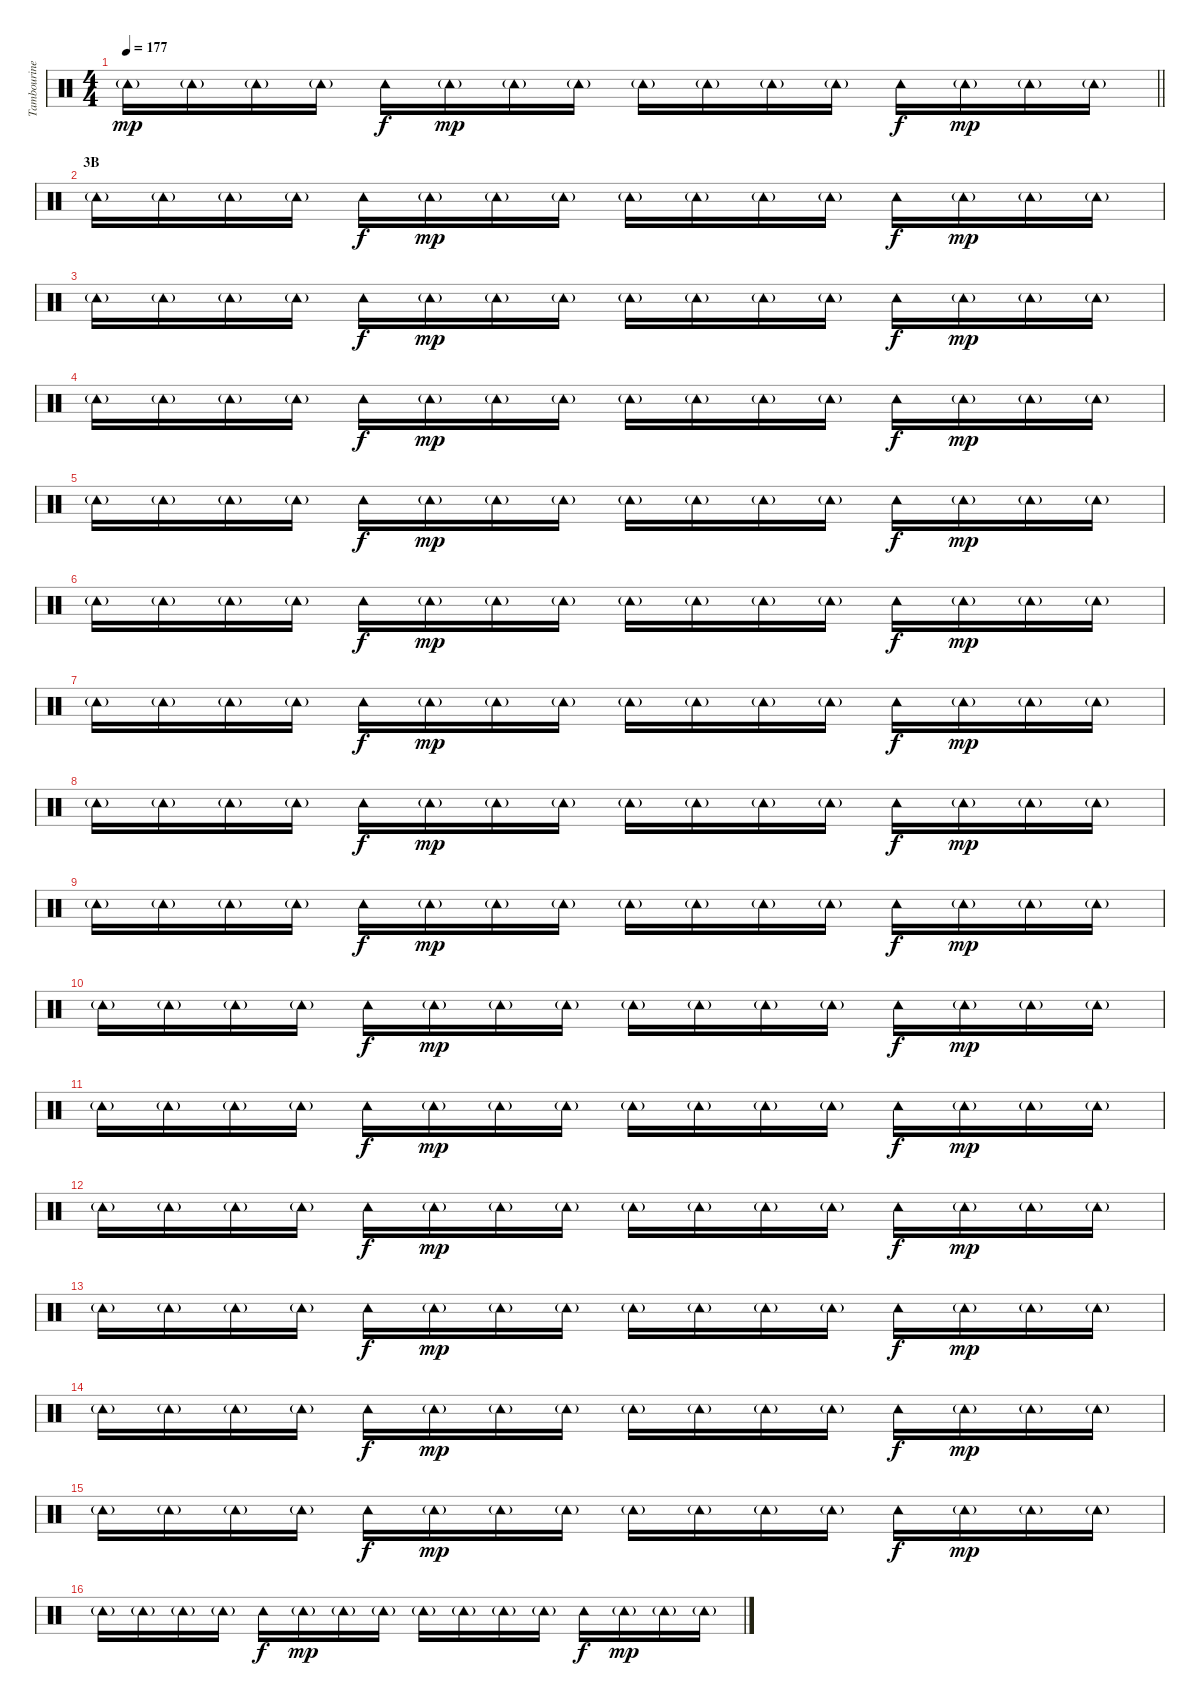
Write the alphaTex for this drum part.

\track ("Tambourine" "Tambourine") {instrument percussion}
\staff {score}
\articulation defaults
\ts (4 4)
\tempo 177
\clef neutral
\barLineRight lightlight
\ks c "Tambourine (hit)"{g}.16{dy mp} "Tambourine (hit)"{g}.16 "Tambourine (hit)"{g}.16 "Tambourine (hit)"{g}.16 "Tambourine (hit)".16{dy f} "Tambourine (hit)"{g}.16{dy mp} "Tambourine (hit)"{g}.16 "Tambourine (hit)"{g}.16 "Tambourine (hit)"{g}.16 "Tambourine (hit)"{g}.16 "Tambourine (hit)"{g}.16 "Tambourine (hit)"{g}.16 "Tambourine (hit)".16{dy f} "Tambourine (hit)"{g}.16{dy mp} "Tambourine (hit)"{g}.16 "Tambourine (hit)"{g}.16
|
\section ("" "3B")
"Tambourine (hit)"{g}.16 "Tambourine (hit)"{g}.16 "Tambourine (hit)"{g}.16 "Tambourine (hit)"{g}.16 "Tambourine (hit)".16{dy f} "Tambourine (hit)"{g}.16{dy mp} "Tambourine (hit)"{g}.16 "Tambourine (hit)"{g}.16 "Tambourine (hit)"{g}.16 "Tambourine (hit)"{g}.16 "Tambourine (hit)"{g}.16 "Tambourine (hit)"{g}.16 "Tambourine (hit)".16{dy f} "Tambourine (hit)"{g}.16{dy mp} "Tambourine (hit)"{g}.16 "Tambourine (hit)"{g}.16 |
"Tambourine (hit)"{g}.16 "Tambourine (hit)"{g}.16 "Tambourine (hit)"{g}.16 "Tambourine (hit)"{g}.16 "Tambourine (hit)".16{dy f} "Tambourine (hit)"{g}.16{dy mp} "Tambourine (hit)"{g}.16 "Tambourine (hit)"{g}.16 "Tambourine (hit)"{g}.16 "Tambourine (hit)"{g}.16 "Tambourine (hit)"{g}.16 "Tambourine (hit)"{g}.16 "Tambourine (hit)".16{dy f} "Tambourine (hit)"{g}.16{dy mp} "Tambourine (hit)"{g}.16 "Tambourine (hit)"{g}.16 |
"Tambourine (hit)"{g}.16 "Tambourine (hit)"{g}.16 "Tambourine (hit)"{g}.16 "Tambourine (hit)"{g}.16 "Tambourine (hit)".16{dy f} "Tambourine (hit)"{g}.16{dy mp} "Tambourine (hit)"{g}.16 "Tambourine (hit)"{g}.16 "Tambourine (hit)"{g}.16 "Tambourine (hit)"{g}.16 "Tambourine (hit)"{g}.16 "Tambourine (hit)"{g}.16 "Tambourine (hit)".16{dy f} "Tambourine (hit)"{g}.16{dy mp} "Tambourine (hit)"{g}.16 "Tambourine (hit)"{g}.16 |
"Tambourine (hit)"{g}.16 "Tambourine (hit)"{g}.16 "Tambourine (hit)"{g}.16 "Tambourine (hit)"{g}.16 "Tambourine (hit)".16{dy f} "Tambourine (hit)"{g}.16{dy mp} "Tambourine (hit)"{g}.16 "Tambourine (hit)"{g}.16 "Tambourine (hit)"{g}.16 "Tambourine (hit)"{g}.16 "Tambourine (hit)"{g}.16 "Tambourine (hit)"{g}.16 "Tambourine (hit)".16{dy f} "Tambourine (hit)"{g}.16{dy mp} "Tambourine (hit)"{g}.16 "Tambourine (hit)"{g}.16 |
"Tambourine (hit)"{g}.16 "Tambourine (hit)"{g}.16 "Tambourine (hit)"{g}.16 "Tambourine (hit)"{g}.16 "Tambourine (hit)".16{dy f} "Tambourine (hit)"{g}.16{dy mp} "Tambourine (hit)"{g}.16 "Tambourine (hit)"{g}.16 "Tambourine (hit)"{g}.16 "Tambourine (hit)"{g}.16 "Tambourine (hit)"{g}.16 "Tambourine (hit)"{g}.16 "Tambourine (hit)".16{dy f} "Tambourine (hit)"{g}.16{dy mp} "Tambourine (hit)"{g}.16 "Tambourine (hit)"{g}.16 |
"Tambourine (hit)"{g}.16 "Tambourine (hit)"{g}.16 "Tambourine (hit)"{g}.16 "Tambourine (hit)"{g}.16 "Tambourine (hit)".16{dy f} "Tambourine (hit)"{g}.16{dy mp} "Tambourine (hit)"{g}.16 "Tambourine (hit)"{g}.16 "Tambourine (hit)"{g}.16 "Tambourine (hit)"{g}.16 "Tambourine (hit)"{g}.16 "Tambourine (hit)"{g}.16 "Tambourine (hit)".16{dy f} "Tambourine (hit)"{g}.16{dy mp} "Tambourine (hit)"{g}.16 "Tambourine (hit)"{g}.16 |
"Tambourine (hit)"{g}.16 "Tambourine (hit)"{g}.16 "Tambourine (hit)"{g}.16 "Tambourine (hit)"{g}.16 "Tambourine (hit)".16{dy f} "Tambourine (hit)"{g}.16{dy mp} "Tambourine (hit)"{g}.16 "Tambourine (hit)"{g}.16 "Tambourine (hit)"{g}.16 "Tambourine (hit)"{g}.16 "Tambourine (hit)"{g}.16 "Tambourine (hit)"{g}.16 "Tambourine (hit)".16{dy f} "Tambourine (hit)"{g}.16{dy mp} "Tambourine (hit)"{g}.16 "Tambourine (hit)"{g}.16 |
"Tambourine (hit)"{g}.16 "Tambourine (hit)"{g}.16 "Tambourine (hit)"{g}.16 "Tambourine (hit)"{g}.16 "Tambourine (hit)".16{dy f} "Tambourine (hit)"{g}.16{dy mp} "Tambourine (hit)"{g}.16 "Tambourine (hit)"{g}.16 "Tambourine (hit)"{g}.16 "Tambourine (hit)"{g}.16 "Tambourine (hit)"{g}.16 "Tambourine (hit)"{g}.16 "Tambourine (hit)".16{dy f} "Tambourine (hit)"{g}.16{dy mp} "Tambourine (hit)"{g}.16 "Tambourine (hit)"{g}.16 |
"Tambourine (hit)"{g}.16 "Tambourine (hit)"{g}.16 "Tambourine (hit)"{g}.16 "Tambourine (hit)"{g}.16 "Tambourine (hit)".16{dy f} "Tambourine (hit)"{g}.16{dy mp} "Tambourine (hit)"{g}.16 "Tambourine (hit)"{g}.16 "Tambourine (hit)"{g}.16 "Tambourine (hit)"{g}.16 "Tambourine (hit)"{g}.16 "Tambourine (hit)"{g}.16 "Tambourine (hit)".16{dy f} "Tambourine (hit)"{g}.16{dy mp} "Tambourine (hit)"{g}.16 "Tambourine (hit)"{g}.16 |
"Tambourine (hit)"{g}.16 "Tambourine (hit)"{g}.16 "Tambourine (hit)"{g}.16 "Tambourine (hit)"{g}.16 "Tambourine (hit)".16{dy f} "Tambourine (hit)"{g}.16{dy mp} "Tambourine (hit)"{g}.16 "Tambourine (hit)"{g}.16 "Tambourine (hit)"{g}.16 "Tambourine (hit)"{g}.16 "Tambourine (hit)"{g}.16 "Tambourine (hit)"{g}.16 "Tambourine (hit)".16{dy f} "Tambourine (hit)"{g}.16{dy mp} "Tambourine (hit)"{g}.16 "Tambourine (hit)"{g}.16 |
"Tambourine (hit)"{g}.16 "Tambourine (hit)"{g}.16 "Tambourine (hit)"{g}.16 "Tambourine (hit)"{g}.16 "Tambourine (hit)".16{dy f} "Tambourine (hit)"{g}.16{dy mp} "Tambourine (hit)"{g}.16 "Tambourine (hit)"{g}.16 "Tambourine (hit)"{g}.16 "Tambourine (hit)"{g}.16 "Tambourine (hit)"{g}.16 "Tambourine (hit)"{g}.16 "Tambourine (hit)".16{dy f} "Tambourine (hit)"{g}.16{dy mp} "Tambourine (hit)"{g}.16 "Tambourine (hit)"{g}.16 |
"Tambourine (hit)"{g}.16 "Tambourine (hit)"{g}.16 "Tambourine (hit)"{g}.16 "Tambourine (hit)"{g}.16 "Tambourine (hit)".16{dy f} "Tambourine (hit)"{g}.16{dy mp} "Tambourine (hit)"{g}.16 "Tambourine (hit)"{g}.16 "Tambourine (hit)"{g}.16 "Tambourine (hit)"{g}.16 "Tambourine (hit)"{g}.16 "Tambourine (hit)"{g}.16 "Tambourine (hit)".16{dy f} "Tambourine (hit)"{g}.16{dy mp} "Tambourine (hit)"{g}.16 "Tambourine (hit)"{g}.16 |
"Tambourine (hit)"{g}.16 "Tambourine (hit)"{g}.16 "Tambourine (hit)"{g}.16 "Tambourine (hit)"{g}.16 "Tambourine (hit)".16{dy f} "Tambourine (hit)"{g}.16{dy mp} "Tambourine (hit)"{g}.16 "Tambourine (hit)"{g}.16 "Tambourine (hit)"{g}.16 "Tambourine (hit)"{g}.16 "Tambourine (hit)"{g}.16 "Tambourine (hit)"{g}.16 "Tambourine (hit)".16{dy f} "Tambourine (hit)"{g}.16{dy mp} "Tambourine (hit)"{g}.16 "Tambourine (hit)"{g}.16 |
"Tambourine (hit)"{g}.16 "Tambourine (hit)"{g}.16 "Tambourine (hit)"{g}.16 "Tambourine (hit)"{g}.16 "Tambourine (hit)".16{dy f} "Tambourine (hit)"{g}.16{dy mp} "Tambourine (hit)"{g}.16 "Tambourine (hit)"{g}.16 "Tambourine (hit)"{g}.16 "Tambourine (hit)"{g}.16 "Tambourine (hit)"{g}.16 "Tambourine (hit)"{g}.16 "Tambourine (hit)".16{dy f} "Tambourine (hit)"{g}.16{dy mp} "Tambourine (hit)"{g}.16 "Tambourine (hit)"{g}.16 |
"Tambourine (hit)"{g}.16 "Tambourine (hit)"{g}.16 "Tambourine (hit)"{g}.16 "Tambourine (hit)"{g}.16 "Tambourine (hit)".16{dy f} "Tambourine (hit)"{g}.16{dy mp} "Tambourine (hit)"{g}.16 "Tambourine (hit)"{g}.16 "Tambourine (hit)"{g}.16 "Tambourine (hit)"{g}.16 "Tambourine (hit)"{g}.16 "Tambourine (hit)"{g}.16 "Tambourine (hit)".16{dy f} "Tambourine (hit)"{g}.16{dy mp} "Tambourine (hit)"{g}.16 "Tambourine (hit)"{g}.16
